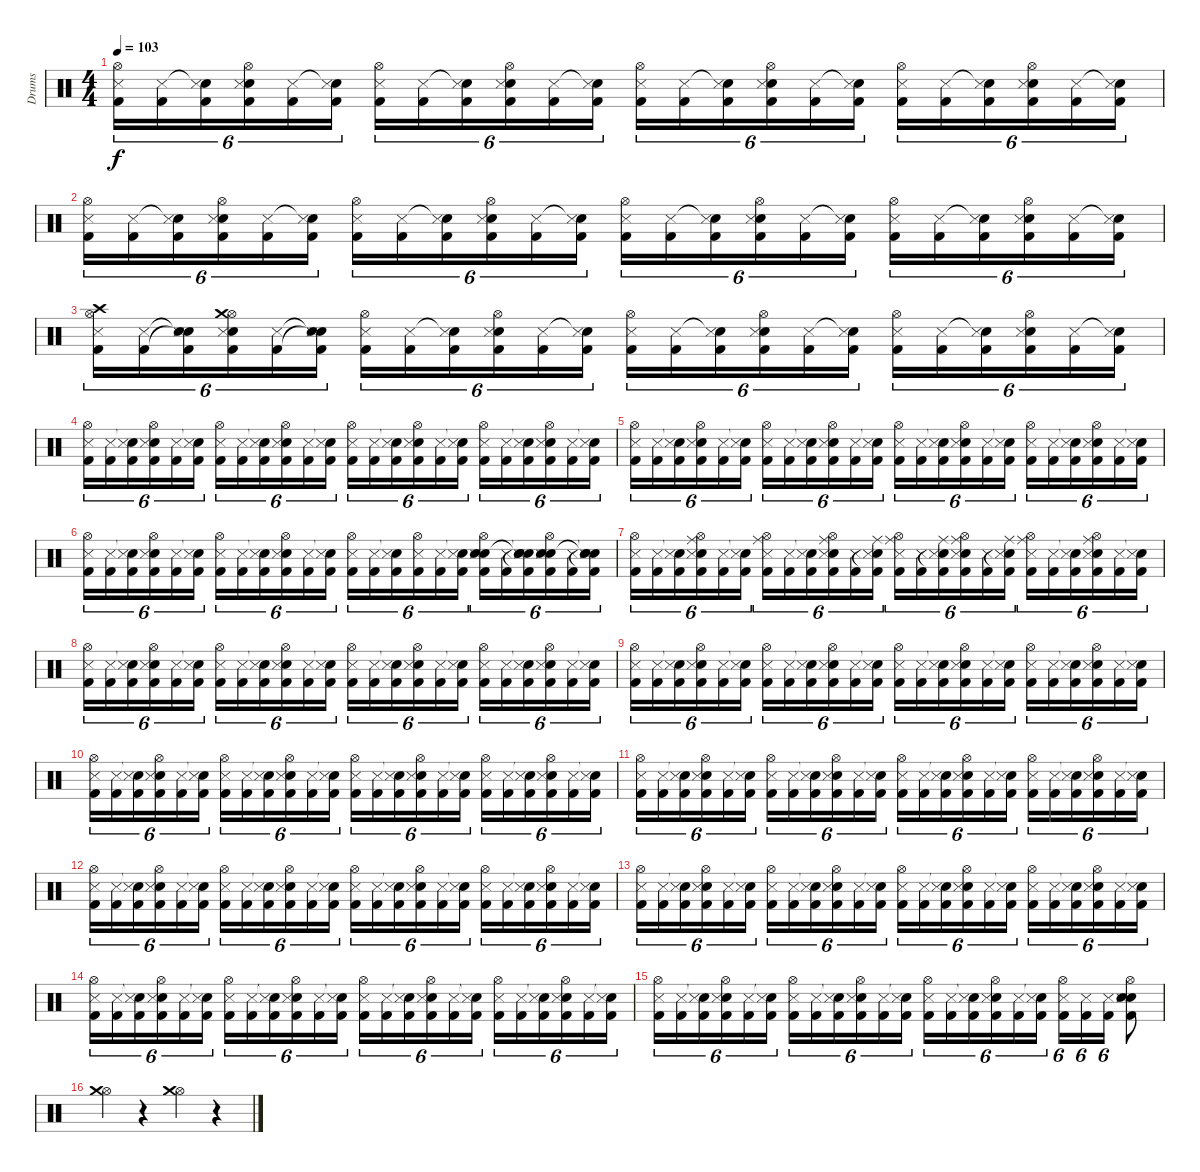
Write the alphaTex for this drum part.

\track ("Drums" "Drums") {instrument percussion}
\staff {score}
\articulation defaults
\ts (4 4)
\tempo 103
\clef neutral
\ks c
("Hi-Hat (open)" "Snare (side stick) 3" "Kick (hit) 2").16{tu (6 4) dy f} ("Snare (side stick) 3" "Kick (hit) 2").16{tu (6 4)} ("Snare (hit)"{t} "Snare (side stick) 3" "Kick (hit) 2").16{tu (6 4)} ("Hi-Hat (open)" "Electric Snare (hit)" "Snare (side stick) 3" "Kick (hit) 2").16{tu (6 4)} ("Snare (side stick) 3" "Kick (hit) 2").16{tu (6 4)} ("Snare (hit)"{t} "Snare (side stick) 3" "Kick (hit) 2").16{tu (6 4)} ("Hi-Hat (open)" "Snare (side stick) 3" "Kick (hit) 2").16{tu (6 4)} ("Snare (side stick) 3" "Kick (hit) 2").16{tu (6 4)} ("Snare (hit)"{t} "Snare (side stick) 3" "Kick (hit) 2").16{tu (6 4)} ("Hi-Hat (open)" "Electric Snare (hit)" "Snare (side stick) 3" "Kick (hit) 2").16{tu (6 4)} ("Snare (side stick) 3" "Kick (hit) 2").16{tu (6 4)} ("Snare (hit)"{t} "Snare (side stick) 3" "Kick (hit) 2").16{tu (6 4)} ("Hi-Hat (open)" "Snare (side stick) 3" "Kick (hit) 2").16{tu (6 4)} ("Snare (side stick) 3" "Kick (hit) 2").16{tu (6 4)} ("Snare (hit)"{t} "Snare (side stick) 3" "Kick (hit) 2").16{tu (6 4)} ("Hi-Hat (open)" "Electric Snare (hit)" "Snare (side stick) 3" "Kick (hit) 2").16{tu (6 4)} ("Snare (side stick) 3" "Kick (hit) 2").16{tu (6 4)} ("Snare (hit)"{t} "Snare (side stick) 3" "Kick (hit) 2").16{tu (6 4)} ("Hi-Hat (open)" "Snare (side stick) 3" "Kick (hit) 2").16{tu (6 4)} ("Snare (side stick) 3" "Kick (hit) 2").16{tu (6 4)} ("Snare (hit)"{t} "Snare (side stick) 3" "Kick (hit) 2").16{tu (6 4)} ("Hi-Hat (open)" "Electric Snare (hit)" "Snare (side stick) 3" "Kick (hit) 2").16{tu (6 4)} ("Snare (side stick) 3" "Kick (hit) 2").16{tu (6 4)} ("Snare (hit)"{t} "Snare (side stick) 3" "Kick (hit) 2").16{tu (6 4)} |
("Hi-Hat (open)" "Snare (side stick) 3" "Kick (hit) 2").16{tu (6 4)} ("Snare (side stick) 3" "Kick (hit) 2").16{tu (6 4)} ("Snare (hit)"{t} "Snare (side stick) 3" "Kick (hit) 2").16{tu (6 4)} ("Hi-Hat (open)" "Electric Snare (hit)" "Snare (side stick) 3" "Kick (hit) 2").16{tu (6 4)} ("Snare (side stick) 3" "Kick (hit) 2").16{tu (6 4)} ("Snare (hit)"{t} "Snare (side stick) 3" "Kick (hit) 2").16{tu (6 4)} ("Hi-Hat (open)" "Snare (side stick) 3" "Kick (hit) 2").16{tu (6 4)} ("Snare (side stick) 3" "Kick (hit) 2").16{tu (6 4)} ("Snare (hit)"{t} "Snare (side stick) 3" "Kick (hit) 2").16{tu (6 4)} ("Hi-Hat (open)" "Electric Snare (hit)" "Snare (side stick) 3" "Kick (hit) 2").16{tu (6 4)} ("Snare (side stick) 3" "Kick (hit) 2").16{tu (6 4)} ("Snare (hit)"{t} "Snare (side stick) 3" "Kick (hit) 2").16{tu (6 4)} ("Hi-Hat (open)" "Snare (side stick) 3" "Kick (hit) 2").16{tu (6 4)} ("Snare (side stick) 3" "Kick (hit) 2").16{tu (6 4)} ("Snare (hit)"{t} "Snare (side stick) 3" "Kick (hit) 2").16{tu (6 4)} ("Hi-Hat (open)" "Electric Snare (hit)" "Snare (side stick) 3" "Kick (hit) 2").16{tu (6 4)} ("Snare (side stick) 3" "Kick (hit) 2").16{tu (6 4)} ("Snare (hit)"{t} "Snare (side stick) 3" "Kick (hit) 2").16{tu (6 4)} ("Hi-Hat (open)" "Snare (side stick) 3" "Kick (hit) 2").16{tu (6 4)} ("Snare (side stick) 3" "Kick (hit) 2").16{tu (6 4)} ("Snare (hit)"{t} "Snare (side stick) 3" "Kick (hit) 2").16{tu (6 4)} ("Hi-Hat (open)" "Electric Snare (hit)" "Snare (side stick) 3" "Kick (hit) 2").16{tu (6 4)} ("Snare (side stick) 3" "Kick (hit) 2").16{tu (6 4)} ("Snare (hit)"{t} "Snare (side stick) 3" "Kick (hit) 2").16{tu (6 4)} |
("Hi-Hat (open)" "Crash high (hit)" "Snare (side stick) 3" "Kick (hit) 2").16{tu (6 4)} ("Snare (side stick) 3" "Kick (hit) 2").16{tu (6 4)} ("Snare (hit)"{t} "Snare (hit)"{t} "Snare (side stick) 3" "Kick (hit) 2").16{tu (6 4)} ("Hi-Hat (open)" "Electric Snare (hit)" "Crash medium (hit)" "Snare (side stick) 3" "Kick (hit) 2").16{tu (6 4)} ("Snare (side stick) 3" "Kick (hit) 2").16{tu (6 4)} ("Snare (hit)"{t} "Snare (hit)"{t} "Snare (side stick) 3" "Kick (hit) 2").16{tu (6 4)} ("Hi-Hat (open)" "Snare (side stick) 3" "Kick (hit) 2").16{tu (6 4)} ("Snare (side stick) 3" "Kick (hit) 2").16{tu (6 4)} ("Snare (hit)"{t} "Snare (side stick) 3" "Kick (hit) 2").16{tu (6 4)} ("Hi-Hat (open)" "Electric Snare (hit)" "Snare (side stick) 3" "Kick (hit) 2").16{tu (6 4)} ("Snare (side stick) 3" "Kick (hit) 2").16{tu (6 4)} ("Snare (hit)"{t} "Snare (side stick) 3" "Kick (hit) 2").16{tu (6 4)} ("Hi-Hat (open)" "Snare (side stick) 3" "Kick (hit) 2").16{tu (6 4)} ("Snare (side stick) 3" "Kick (hit) 2").16{tu (6 4)} ("Snare (hit)"{t} "Snare (side stick) 3" "Kick (hit) 2").16{tu (6 4)} ("Hi-Hat (open)" "Electric Snare (hit)" "Snare (side stick) 3" "Kick (hit) 2").16{tu (6 4)} ("Snare (side stick) 3" "Kick (hit) 2").16{tu (6 4)} ("Snare (hit)"{t} "Snare (side stick) 3" "Kick (hit) 2").16{tu (6 4)} ("Hi-Hat (open)" "Snare (side stick) 3" "Kick (hit) 2").16{tu (6 4)} ("Snare (side stick) 3" "Kick (hit) 2").16{tu (6 4)} ("Snare (hit)"{t} "Snare (side stick) 3" "Kick (hit) 2").16{tu (6 4)} ("Hi-Hat (open)" "Electric Snare (hit)" "Snare (side stick) 3" "Kick (hit) 2").16{tu (6 4)} ("Snare (side stick) 3" "Kick (hit) 2").16{tu (6 4)} ("Snare (hit)"{t} "Snare (side stick) 3" "Kick (hit) 2").16{tu (6 4)} |
("Hi-Hat (open)" "Snare (side stick) 3" "Kick (hit) 2").16{tu (6 4)} ("Snare (side stick) 3" "Kick (hit) 2").16{tu (6 4)} ("Snare (hit)"{t} "Snare (side stick) 3" "Kick (hit) 2").16{tu (6 4)} ("Hi-Hat (open)" "Electric Snare (hit)" "Snare (side stick) 3" "Kick (hit) 2").16{tu (6 4)} ("Snare (side stick) 3" "Kick (hit) 2").16{tu (6 4)} ("Snare (hit)"{t} "Snare (side stick) 3" "Kick (hit) 2").16{tu (6 4)} ("Hi-Hat (open)" "Snare (side stick) 3" "Kick (hit) 2").16{tu (6 4)} ("Snare (side stick) 3" "Kick (hit) 2").16{tu (6 4)} ("Snare (hit)"{t} "Snare (side stick) 3" "Kick (hit) 2").16{tu (6 4)} ("Hi-Hat (open)" "Electric Snare (hit)" "Snare (side stick) 3" "Kick (hit) 2").16{tu (6 4)} ("Snare (side stick) 3" "Kick (hit) 2").16{tu (6 4)} ("Snare (hit)"{t} "Snare (side stick) 3" "Kick (hit) 2").16{tu (6 4)} ("Hi-Hat (open)" "Snare (side stick) 3" "Kick (hit) 2").16{tu (6 4)} ("Snare (side stick) 3" "Kick (hit) 2").16{tu (6 4)} ("Snare (hit)"{t} "Snare (side stick) 3" "Kick (hit) 2").16{tu (6 4)} ("Hi-Hat (open)" "Electric Snare (hit)" "Snare (side stick) 3" "Kick (hit) 2").16{tu (6 4)} ("Snare (side stick) 3" "Kick (hit) 2").16{tu (6 4)} ("Snare (hit)"{t} "Snare (side stick) 3" "Kick (hit) 2").16{tu (6 4)} ("Hi-Hat (open)" "Snare (side stick) 3" "Kick (hit) 2").16{tu (6 4)} ("Snare (side stick) 3" "Kick (hit) 2").16{tu (6 4)} ("Snare (hit)"{t} "Snare (side stick) 3" "Kick (hit) 2").16{tu (6 4)} ("Hi-Hat (open)" "Electric Snare (hit)" "Snare (side stick) 3" "Kick (hit) 2").16{tu (6 4)} ("Snare (side stick) 3" "Kick (hit) 2").16{tu (6 4)} ("Snare (hit)"{t} "Snare (side stick) 3" "Kick (hit) 2").16{tu (6 4)} |
("Hi-Hat (open)" "Snare (side stick) 3" "Kick (hit) 2").16{tu (6 4)} ("Snare (side stick) 3" "Kick (hit) 2").16{tu (6 4)} ("Snare (hit)"{t} "Snare (side stick) 3" "Kick (hit) 2").16{tu (6 4)} ("Hi-Hat (open)" "Electric Snare (hit)" "Snare (side stick) 3" "Kick (hit) 2").16{tu (6 4)} ("Snare (side stick) 3" "Kick (hit) 2").16{tu (6 4)} ("Snare (hit)"{t} "Snare (side stick) 3" "Kick (hit) 2").16{tu (6 4)} ("Hi-Hat (open)" "Snare (side stick) 3" "Kick (hit) 2").16{tu (6 4)} ("Snare (side stick) 3" "Kick (hit) 2").16{tu (6 4)} ("Snare (hit)"{t} "Snare (side stick) 3" "Kick (hit) 2").16{tu (6 4)} ("Hi-Hat (open)" "Electric Snare (hit)" "Snare (side stick) 3" "Kick (hit) 2").16{tu (6 4)} ("Snare (side stick) 3" "Kick (hit) 2").16{tu (6 4)} ("Snare (hit)"{t} "Snare (side stick) 3" "Kick (hit) 2").16{tu (6 4)} ("Hi-Hat (open)" "Snare (side stick) 3" "Kick (hit) 2").16{tu (6 4)} ("Snare (side stick) 3" "Kick (hit) 2").16{tu (6 4)} ("Snare (hit)"{t} "Snare (side stick) 3" "Kick (hit) 2").16{tu (6 4)} ("Hi-Hat (open)" "Electric Snare (hit)" "Snare (side stick) 3" "Kick (hit) 2").16{tu (6 4)} ("Snare (side stick) 3" "Kick (hit) 2").16{tu (6 4)} ("Snare (hit)"{t} "Snare (side stick) 3" "Kick (hit) 2").16{tu (6 4)} ("Hi-Hat (open)" "Snare (side stick) 3" "Kick (hit) 2").16{tu (6 4)} ("Snare (side stick) 3" "Kick (hit) 2").16{tu (6 4)} ("Snare (hit)"{t} "Snare (side stick) 3" "Kick (hit) 2").16{tu (6 4)} ("Hi-Hat (open)" "Electric Snare (hit)" "Snare (side stick) 3" "Kick (hit) 2").16{tu (6 4)} ("Snare (side stick) 3" "Kick (hit) 2").16{tu (6 4)} ("Snare (hit)"{t} "Snare (side stick) 3" "Kick (hit) 2").16{tu (6 4)} |
("Hi-Hat (open)" "Snare (side stick) 3" "Kick (hit) 2").16{tu (6 4)} ("Snare (side stick) 3" "Kick (hit) 2").16{tu (6 4)} ("Snare (hit)"{t} "Snare (side stick) 3" "Kick (hit) 2").16{tu (6 4)} ("Hi-Hat (open)" "Electric Snare (hit)" "Snare (side stick) 3" "Kick (hit) 2").16{tu (6 4)} ("Snare (side stick) 3" "Kick (hit) 2").16{tu (6 4)} ("Snare (hit)"{t} "Snare (side stick) 3" "Kick (hit) 2").16{tu (6 4)} ("Hi-Hat (open)" "Snare (side stick) 3" "Kick (hit) 2").16{tu (6 4)} ("Snare (side stick) 3" "Kick (hit) 2").16{tu (6 4)} ("Snare (hit)"{t} "Snare (side stick) 3" "Kick (hit) 2").16{tu (6 4)} ("Hi-Hat (open)" "Electric Snare (hit)" "Snare (side stick) 3" "Kick (hit) 2").16{tu (6 4)} ("Snare (side stick) 3" "Kick (hit) 2").16{tu (6 4)} ("Snare (hit)"{t} "Snare (side stick) 3" "Kick (hit) 2").16{tu (6 4)} ("Hi-Hat (open)" "Snare (side stick) 3" "Kick (hit) 2").16{tu (6 4)} ("Snare (side stick) 3" "Kick (hit) 2").16{tu (6 4)} ("Snare (hit)"{t} "Snare (side stick) 3" "Kick (hit) 2").16{tu (6 4)} ("Hi-Hat (open)" "Snare (side stick) 3" "Kick (hit) 2").16{tu (6 4)} ("Snare (side stick) 3" "Kick (hit) 2").16{tu (6 4)} ("Snare (hit)"{t} "Snare (side stick) 3" "Kick (hit) 2").16{tu (6 4)} ("Hi-Hat (open)" "Electric Snare (hit)" "Snare (hit) 2" "Snare (side stick) 3" "Kick (hit) 2").16{tu (6 4)} ("Snare (side stick) 3" "Kick (hit) 2").16{tu (6 4)} ("Snare (hit)"{t} "Snare (hit)"{t} "Snare (hit)"{t} "Snare (side stick) 3" "Kick (hit) 2").16{tu (6 4)} ("Hi-Hat (open)" "Electric Snare (hit)" "Snare (hit) 2" "Snare (side stick) 3" "Kick (hit) 2").16{tu (6 4)} ("Snare (side stick) 3" "Kick (hit) 2").16{tu (6 4)} ("Snare (hit)"{t} "Snare (hit)"{t} "Snare (hit)"{t} "Snare (side stick) 3" "Kick (hit) 2").16{tu (6 4)} |
("Hi-Hat (open)" "Snare (side stick) 3" "Kick (hit) 2").16{tu (6 4)} ("Snare (side stick) 3" "Kick (hit) 2").16{tu (6 4)} ("Snare (hit)"{t} "Snare (side stick) 3" "Kick (hit) 2").16{tu (6 4)} ("Ride (middle)" "Hi-Hat (open)" "Electric Snare (hit)" "Snare (side stick) 3" "Kick (hit) 2").16{tu (6 4)} ("Snare (side stick) 3" "Kick (hit) 2").16{tu (6 4)} ("Snare (hit)"{t} "Snare (side stick) 3" "Kick (hit) 2").16{tu (6 4)} ("Ride (middle)" "Hi-Hat (open)" "Snare (side stick) 3" "Kick (hit) 2").16{tu (6 4)} ("Snare (side stick) 3" "Kick (hit) 2").16{tu (6 4)} ("Snare (hit)"{t} "Snare (side stick) 3" "Kick (hit) 2").16{tu (6 4)} ("Ride (middle)" "Hi-Hat (open)" "Electric Snare (hit)" "Snare (side stick) 3" "Kick (hit) 2").16{tu (6 4)} ("Snare (side stick) 3" "Kick (hit) 2").16{tu (6 4)} ("Ride (middle)" "Snare (hit)"{t} "Snare (side stick) 3" "Kick (hit) 2").16{tu (6 4)} ("Ride (middle)" "Hi-Hat (open)" "Snare (side stick) 3" "Kick (hit) 2").16{tu (6 4)} ("Snare (side stick) 3" "Kick (hit) 2").16{tu (6 4)} ("Ride (middle)" "Snare (hit)"{t} "Snare (side stick) 3" "Kick (hit) 2").16{tu (6 4)} ("Ride (middle)" "Hi-Hat (open)" "Electric Snare (hit)" "Snare (side stick) 3" "Kick (hit) 2").16{tu (6 4)} ("Snare (side stick) 3" "Kick (hit) 2").16{tu (6 4)} ("Ride (middle)" "Snare (hit)"{t} "Snare (side stick) 3" "Kick (hit) 2").16{tu (6 4)} ("Ride (middle)" "Hi-Hat (open)" "Snare (side stick) 3" "Kick (hit) 2").16{tu (6 4)} ("Snare (side stick) 3" "Kick (hit) 2").16{tu (6 4)} ("Snare (hit)"{t} "Snare (side stick) 3" "Kick (hit) 2").16{tu (6 4)} ("Ride (middle)" "Hi-Hat (open)" "Electric Snare (hit)" "Snare (side stick) 3" "Kick (hit) 2").16{tu (6 4)} ("Snare (side stick) 3" "Kick (hit) 2").16{tu (6 4)} ("Snare (hit)"{t} "Snare (side stick) 3" "Kick (hit) 2").16{tu (6 4)} |
("Hi-Hat (open)" "Snare (side stick) 3" "Kick (hit) 2").16{tu (6 4)} ("Snare (side stick) 3" "Kick (hit) 2").16{tu (6 4)} ("Snare (hit)"{t} "Snare (side stick) 3" "Kick (hit) 2").16{tu (6 4)} ("Hi-Hat (open)" "Electric Snare (hit)" "Snare (side stick) 3" "Kick (hit) 2").16{tu (6 4)} ("Snare (side stick) 3" "Kick (hit) 2").16{tu (6 4)} ("Snare (hit)"{t} "Snare (side stick) 3" "Kick (hit) 2").16{tu (6 4)} ("Hi-Hat (open)" "Snare (side stick) 3" "Kick (hit) 2").16{tu (6 4)} ("Snare (side stick) 3" "Kick (hit) 2").16{tu (6 4)} ("Snare (hit)"{t} "Snare (side stick) 3" "Kick (hit) 2").16{tu (6 4)} ("Hi-Hat (open)" "Electric Snare (hit)" "Snare (side stick) 3" "Kick (hit) 2").16{tu (6 4)} ("Snare (side stick) 3" "Kick (hit) 2").16{tu (6 4)} ("Snare (hit)"{t} "Snare (side stick) 3" "Kick (hit) 2").16{tu (6 4)} ("Hi-Hat (open)" "Snare (side stick) 3" "Kick (hit) 2").16{tu (6 4)} ("Snare (side stick) 3" "Kick (hit) 2").16{tu (6 4)} ("Snare (hit)"{t} "Snare (side stick) 3" "Kick (hit) 2").16{tu (6 4)} ("Hi-Hat (open)" "Electric Snare (hit)" "Snare (side stick) 3" "Kick (hit) 2").16{tu (6 4)} ("Snare (side stick) 3" "Kick (hit) 2").16{tu (6 4)} ("Snare (hit)"{t} "Snare (side stick) 3" "Kick (hit) 2").16{tu (6 4)} ("Hi-Hat (open)" "Snare (side stick) 3" "Kick (hit) 2").16{tu (6 4)} ("Snare (side stick) 3" "Kick (hit) 2").16{tu (6 4)} ("Snare (hit)"{t} "Snare (side stick) 3" "Kick (hit) 2").16{tu (6 4)} ("Hi-Hat (open)" "Electric Snare (hit)" "Snare (side stick) 3" "Kick (hit) 2").16{tu (6 4)} ("Snare (side stick) 3" "Kick (hit) 2").16{tu (6 4)} ("Snare (hit)"{t} "Snare (side stick) 3" "Kick (hit) 2").16{tu (6 4)} |
("Hi-Hat (open)" "Snare (side stick) 3" "Kick (hit) 2").16{tu (6 4)} ("Snare (side stick) 3" "Kick (hit) 2").16{tu (6 4)} ("Snare (hit)"{t} "Snare (side stick) 3" "Kick (hit) 2").16{tu (6 4)} ("Hi-Hat (open)" "Electric Snare (hit)" "Snare (side stick) 3" "Kick (hit) 2").16{tu (6 4)} ("Snare (side stick) 3" "Kick (hit) 2").16{tu (6 4)} ("Snare (hit)"{t} "Snare (side stick) 3" "Kick (hit) 2").16{tu (6 4)} ("Hi-Hat (open)" "Snare (side stick) 3" "Kick (hit) 2").16{tu (6 4)} ("Snare (side stick) 3" "Kick (hit) 2").16{tu (6 4)} ("Snare (hit)"{t} "Snare (side stick) 3" "Kick (hit) 2").16{tu (6 4)} ("Hi-Hat (open)" "Electric Snare (hit)" "Snare (side stick) 3" "Kick (hit) 2").16{tu (6 4)} ("Snare (side stick) 3" "Kick (hit) 2").16{tu (6 4)} ("Snare (hit)"{t} "Snare (side stick) 3" "Kick (hit) 2").16{tu (6 4)} ("Hi-Hat (open)" "Snare (side stick) 3" "Kick (hit) 2").16{tu (6 4)} ("Snare (side stick) 3" "Kick (hit) 2").16{tu (6 4)} ("Snare (hit)"{t} "Snare (side stick) 3" "Kick (hit) 2").16{tu (6 4)} ("Hi-Hat (open)" "Electric Snare (hit)" "Snare (side stick) 3" "Kick (hit) 2").16{tu (6 4)} ("Snare (side stick) 3" "Kick (hit) 2").16{tu (6 4)} ("Snare (hit)"{t} "Snare (side stick) 3" "Kick (hit) 2").16{tu (6 4)} ("Hi-Hat (open)" "Snare (side stick) 3" "Kick (hit) 2").16{tu (6 4)} ("Snare (side stick) 3" "Kick (hit) 2").16{tu (6 4)} ("Snare (hit)"{t} "Snare (side stick) 3" "Kick (hit) 2").16{tu (6 4)} ("Hi-Hat (open)" "Electric Snare (hit)" "Snare (side stick) 3" "Kick (hit) 2").16{tu (6 4)} ("Snare (side stick) 3" "Kick (hit) 2").16{tu (6 4)} ("Snare (hit)"{t} "Snare (side stick) 3" "Kick (hit) 2").16{tu (6 4)} |
("Hi-Hat (open)" "Snare (side stick) 3" "Kick (hit) 2").16{tu (6 4)} ("Snare (side stick) 3" "Kick (hit) 2").16{tu (6 4)} ("Snare (hit)"{t} "Snare (side stick) 3" "Kick (hit) 2").16{tu (6 4)} ("Hi-Hat (open)" "Electric Snare (hit)" "Snare (side stick) 3" "Kick (hit) 2").16{tu (6 4)} ("Snare (side stick) 3" "Kick (hit) 2").16{tu (6 4)} ("Snare (hit)"{t} "Snare (side stick) 3" "Kick (hit) 2").16{tu (6 4)} ("Hi-Hat (open)" "Snare (side stick) 3" "Kick (hit) 2").16{tu (6 4)} ("Snare (side stick) 3" "Kick (hit) 2").16{tu (6 4)} ("Snare (hit)"{t} "Snare (side stick) 3" "Kick (hit) 2").16{tu (6 4)} ("Hi-Hat (open)" "Electric Snare (hit)" "Snare (side stick) 3" "Kick (hit) 2").16{tu (6 4)} ("Snare (side stick) 3" "Kick (hit) 2").16{tu (6 4)} ("Snare (hit)"{t} "Snare (side stick) 3" "Kick (hit) 2").16{tu (6 4)} ("Hi-Hat (open)" "Snare (side stick) 3" "Kick (hit) 2").16{tu (6 4)} ("Snare (side stick) 3" "Kick (hit) 2").16{tu (6 4)} ("Snare (hit)"{t} "Snare (side stick) 3" "Kick (hit) 2").16{tu (6 4)} ("Hi-Hat (open)" "Electric Snare (hit)" "Snare (side stick) 3" "Kick (hit) 2").16{tu (6 4)} ("Snare (side stick) 3" "Kick (hit) 2").16{tu (6 4)} ("Snare (hit)"{t} "Snare (side stick) 3" "Kick (hit) 2").16{tu (6 4)} ("Hi-Hat (open)" "Snare (side stick) 3" "Kick (hit) 2").16{tu (6 4)} ("Snare (side stick) 3" "Kick (hit) 2").16{tu (6 4)} ("Snare (hit)"{t} "Snare (side stick) 3" "Kick (hit) 2").16{tu (6 4)} ("Hi-Hat (open)" "Electric Snare (hit)" "Snare (side stick) 3" "Kick (hit) 2").16{tu (6 4)} ("Snare (side stick) 3" "Kick (hit) 2").16{tu (6 4)} ("Snare (hit)"{t} "Snare (side stick) 3" "Kick (hit) 2").16{tu (6 4)} |
("Hi-Hat (open)" "Snare (side stick) 3" "Kick (hit) 2").16{tu (6 4)} ("Snare (side stick) 3" "Kick (hit) 2").16{tu (6 4)} ("Snare (hit)"{t} "Snare (side stick) 3" "Kick (hit) 2").16{tu (6 4)} ("Hi-Hat (open)" "Electric Snare (hit)" "Snare (side stick) 3" "Kick (hit) 2").16{tu (6 4)} ("Snare (side stick) 3" "Kick (hit) 2").16{tu (6 4)} ("Snare (hit)"{t} "Snare (side stick) 3" "Kick (hit) 2").16{tu (6 4)} ("Hi-Hat (open)" "Snare (side stick) 3" "Kick (hit) 2").16{tu (6 4)} ("Snare (side stick) 3" "Kick (hit) 2").16{tu (6 4)} ("Snare (hit)"{t} "Snare (side stick) 3" "Kick (hit) 2").16{tu (6 4)} ("Hi-Hat (open)" "Electric Snare (hit)" "Snare (side stick) 3" "Kick (hit) 2").16{tu (6 4)} ("Snare (side stick) 3" "Kick (hit) 2").16{tu (6 4)} ("Snare (hit)"{t} "Snare (side stick) 3" "Kick (hit) 2").16{tu (6 4)} ("Hi-Hat (open)" "Snare (side stick) 3" "Kick (hit) 2").16{tu (6 4)} ("Snare (side stick) 3" "Kick (hit) 2").16{tu (6 4)} ("Snare (hit)"{t} "Snare (side stick) 3" "Kick (hit) 2").16{tu (6 4)} ("Hi-Hat (open)" "Electric Snare (hit)" "Snare (side stick) 3" "Kick (hit) 2").16{tu (6 4)} ("Snare (side stick) 3" "Kick (hit) 2").16{tu (6 4)} ("Snare (hit)"{t} "Snare (side stick) 3" "Kick (hit) 2").16{tu (6 4)} ("Hi-Hat (open)" "Snare (side stick) 3" "Kick (hit) 2").16{tu (6 4)} ("Snare (side stick) 3" "Kick (hit) 2").16{tu (6 4)} ("Snare (hit)"{t} "Snare (side stick) 3" "Kick (hit) 2").16{tu (6 4)} ("Hi-Hat (open)" "Electric Snare (hit)" "Snare (side stick) 3" "Kick (hit) 2").16{tu (6 4)} ("Snare (side stick) 3" "Kick (hit) 2").16{tu (6 4)} ("Snare (hit)"{t} "Snare (side stick) 3" "Kick (hit) 2").16{tu (6 4)} |
("Hi-Hat (open)" "Snare (side stick) 3" "Kick (hit) 2").16{tu (6 4)} ("Snare (side stick) 3" "Kick (hit) 2").16{tu (6 4)} ("Snare (hit)"{t} "Snare (side stick) 3" "Kick (hit) 2").16{tu (6 4)} ("Hi-Hat (open)" "Electric Snare (hit)" "Snare (side stick) 3" "Kick (hit) 2").16{tu (6 4)} ("Snare (side stick) 3" "Kick (hit) 2").16{tu (6 4)} ("Snare (hit)"{t} "Snare (side stick) 3" "Kick (hit) 2").16{tu (6 4)} ("Hi-Hat (open)" "Snare (side stick) 3" "Kick (hit) 2").16{tu (6 4)} ("Snare (side stick) 3" "Kick (hit) 2").16{tu (6 4)} ("Snare (hit)"{t} "Snare (side stick) 3" "Kick (hit) 2").16{tu (6 4)} ("Hi-Hat (open)" "Electric Snare (hit)" "Snare (side stick) 3" "Kick (hit) 2").16{tu (6 4)} ("Snare (side stick) 3" "Kick (hit) 2").16{tu (6 4)} ("Snare (hit)"{t} "Snare (side stick) 3" "Kick (hit) 2").16{tu (6 4)} ("Hi-Hat (open)" "Snare (side stick) 3" "Kick (hit) 2").16{tu (6 4)} ("Snare (side stick) 3" "Kick (hit) 2").16{tu (6 4)} ("Snare (hit)"{t} "Snare (side stick) 3" "Kick (hit) 2").16{tu (6 4)} ("Hi-Hat (open)" "Electric Snare (hit)" "Snare (side stick) 3" "Kick (hit) 2").16{tu (6 4)} ("Snare (side stick) 3" "Kick (hit) 2").16{tu (6 4)} ("Snare (hit)"{t} "Snare (side stick) 3" "Kick (hit) 2").16{tu (6 4)} ("Hi-Hat (open)" "Snare (side stick) 3" "Kick (hit) 2").16{tu (6 4)} ("Snare (side stick) 3" "Kick (hit) 2").16{tu (6 4)} ("Snare (hit)"{t} "Snare (side stick) 3" "Kick (hit) 2").16{tu (6 4)} ("Hi-Hat (open)" "Electric Snare (hit)" "Snare (side stick) 3" "Kick (hit) 2").16{tu (6 4)} ("Snare (side stick) 3" "Kick (hit) 2").16{tu (6 4)} ("Snare (hit)"{t} "Snare (side stick) 3" "Kick (hit) 2").16{tu (6 4)} |
("Hi-Hat (open)" "Snare (side stick) 3" "Kick (hit) 2").16{tu (6 4)} ("Snare (side stick) 3" "Kick (hit) 2").16{tu (6 4)} ("Snare (hit)"{t} "Snare (side stick) 3" "Kick (hit) 2").16{tu (6 4)} ("Hi-Hat (open)" "Electric Snare (hit)" "Snare (side stick) 3" "Kick (hit) 2").16{tu (6 4)} ("Snare (side stick) 3" "Kick (hit) 2").16{tu (6 4)} ("Snare (hit)"{t} "Snare (side stick) 3" "Kick (hit) 2").16{tu (6 4)} ("Hi-Hat (open)" "Snare (side stick) 3" "Kick (hit) 2").16{tu (6 4)} ("Snare (side stick) 3" "Kick (hit) 2").16{tu (6 4)} ("Snare (hit)"{t} "Snare (side stick) 3" "Kick (hit) 2").16{tu (6 4)} ("Hi-Hat (open)" "Electric Snare (hit)" "Snare (side stick) 3" "Kick (hit) 2").16{tu (6 4)} ("Snare (side stick) 3" "Kick (hit) 2").16{tu (6 4)} ("Snare (hit)"{t} "Snare (side stick) 3" "Kick (hit) 2").16{tu (6 4)} ("Hi-Hat (open)" "Snare (side stick) 3" "Kick (hit) 2").16{tu (6 4)} ("Snare (side stick) 3" "Kick (hit) 2").16{tu (6 4)} ("Snare (hit)"{t} "Snare (side stick) 3" "Kick (hit) 2").16{tu (6 4)} ("Hi-Hat (open)" "Electric Snare (hit)" "Snare (side stick) 3" "Kick (hit) 2").16{tu (6 4)} ("Snare (side stick) 3" "Kick (hit) 2").16{tu (6 4)} ("Snare (hit)"{t} "Snare (side stick) 3" "Kick (hit) 2").16{tu (6 4)} ("Hi-Hat (open)" "Snare (side stick) 3" "Kick (hit) 2").16{tu (6 4)} ("Snare (side stick) 3" "Kick (hit) 2").16{tu (6 4)} ("Snare (hit)"{t} "Snare (side stick) 3" "Kick (hit) 2").16{tu (6 4)} ("Hi-Hat (open)" "Electric Snare (hit)" "Snare (side stick) 3" "Kick (hit) 2").16{tu (6 4)} ("Snare (side stick) 3" "Kick (hit) 2").16{tu (6 4)} ("Snare (hit)"{t} "Snare (side stick) 3" "Kick (hit) 2").16{tu (6 4)} |
("Hi-Hat (open)" "Snare (side stick) 3" "Kick (hit) 2").16{tu (6 4)} ("Snare (side stick) 3" "Kick (hit) 2").16{tu (6 4)} ("Snare (hit)"{t} "Snare (side stick) 3" "Kick (hit) 2").16{tu (6 4)} ("Hi-Hat (open)" "Electric Snare (hit)" "Snare (side stick) 3" "Kick (hit) 2").16{tu (6 4)} ("Snare (side stick) 3" "Kick (hit) 2").16{tu (6 4)} ("Snare (hit)"{t} "Snare (side stick) 3" "Kick (hit) 2").16{tu (6 4)} ("Hi-Hat (open)" "Snare (side stick) 3" "Kick (hit) 2").16{tu (6 4)} ("Snare (side stick) 3" "Kick (hit) 2").16{tu (6 4)} ("Snare (hit)"{t} "Snare (side stick) 3" "Kick (hit) 2").16{tu (6 4)} ("Hi-Hat (open)" "Electric Snare (hit)" "Snare (side stick) 3" "Kick (hit) 2").16{tu (6 4)} ("Snare (side stick) 3" "Kick (hit) 2").16{tu (6 4)} ("Snare (hit)"{t} "Snare (side stick) 3" "Kick (hit) 2").16{tu (6 4)} ("Hi-Hat (open)" "Snare (side stick) 3" "Kick (hit) 2").16{tu (6 4)} ("Snare (side stick) 3" "Kick (hit) 2").16{tu (6 4)} ("Snare (hit)"{t} "Snare (side stick) 3" "Kick (hit) 2").16{tu (6 4)} ("Hi-Hat (open)" "Electric Snare (hit)" "Snare (side stick) 3" "Kick (hit) 2").16{tu (6 4)} ("Snare (side stick) 3" "Kick (hit) 2").16{tu (6 4)} ("Snare (hit)"{t} "Snare (side stick) 3" "Kick (hit) 2").16{tu (6 4)} ("Hi-Hat (open)" "Snare (side stick) 3" "Kick (hit) 2").16{tu (6 4)} ("Snare (side stick) 3" "Kick (hit) 2").16{tu (6 4)} ("Snare (hit)"{t} "Snare (side stick) 3" "Kick (hit) 2").16{tu (6 4)} ("Hi-Hat (open)" "Electric Snare (hit)" "Snare (side stick) 3" "Kick (hit) 2").16{tu (6 4)} ("Snare (side stick) 3" "Kick (hit) 2").16{tu (6 4)} ("Snare (hit)"{t} "Snare (side stick) 3" "Kick (hit) 2").16{tu (6 4)} |
("Hi-Hat (open)" "Snare (side stick) 3" "Kick (hit) 2").16{tu (6 4)} ("Snare (side stick) 3" "Kick (hit) 2").16{tu (6 4)} ("Snare (hit)"{t} "Snare (side stick) 3" "Kick (hit) 2").16{tu (6 4)} ("Hi-Hat (open)" "Electric Snare (hit)" "Snare (side stick) 3" "Kick (hit) 2").16{tu (6 4)} ("Snare (side stick) 3" "Kick (hit) 2").16{tu (6 4)} ("Snare (hit)"{t} "Snare (side stick) 3" "Kick (hit) 2").16{tu (6 4)} ("Hi-Hat (open)" "Snare (side stick) 3" "Kick (hit) 2").16{tu (6 4)} ("Snare (side stick) 3" "Kick (hit) 2").16{tu (6 4)} ("Snare (hit)"{t} "Snare (side stick) 3" "Kick (hit) 2").16{tu (6 4)} ("Hi-Hat (open)" "Electric Snare (hit)" "Snare (side stick) 3" "Kick (hit) 2").16{tu (6 4)} ("Snare (side stick) 3" "Kick (hit) 2").16{tu (6 4)} ("Snare (hit)"{t} "Snare (side stick) 3" "Kick (hit) 2").16{tu (6 4)} ("Hi-Hat (open)" "Snare (side stick) 3" "Kick (hit) 2").16{tu (6 4)} ("Snare (side stick) 3" "Kick (hit) 2").16{tu (6 4)} ("Snare (hit)"{t} "Snare (side stick) 3" "Kick (hit) 2").16{tu (6 4)} ("Hi-Hat (open)" "Electric Snare (hit)" "Snare (side stick) 3" "Kick (hit) 2").16{tu (6 4)} ("Snare (side stick) 3" "Kick (hit) 2").16{tu (6 4)} ("Snare (hit)"{t} "Snare (side stick) 3" "Kick (hit) 2").16{tu (6 4)} ("Hi-Hat (open)" "Snare (side stick) 3" "Kick (hit) 2").16{tu (6 4)} ("Snare (side stick) 3" "Kick (hit) 2").16{tu (6 4)} ("Snare (side stick) 3" "Kick (hit) 2").16{tu (6 4)} ("Hi-Hat (open)" "Snare (hit) 2" "Electric Snare (hit)" "Snare (side stick) 3" "Kick (hit) 2").8 |
("Hi-Hat (open)" "Crash medium (hit)").4 r.4 ("Hi-Hat (open)" "Crash medium (hit)").4 r.4
